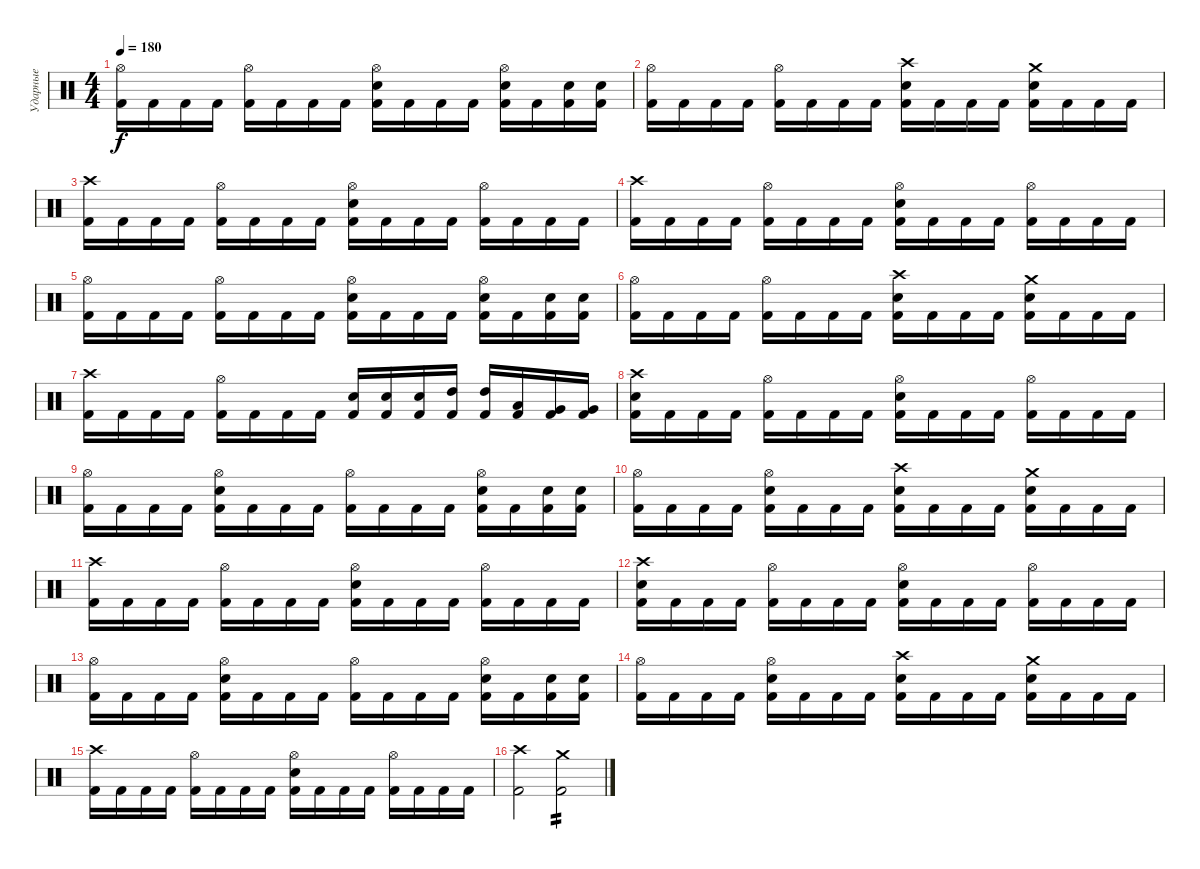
\track ("Ударные" "Ударные") {instrument percussion}
\staff {score}
\articulation defaults
\ts (4 4)
\tempo 180
\clef neutral
\ks c
("Hi-Hat (open)" "Kick (hit) 2").16{dy f} "Kick (hit) 2".16 "Kick (hit) 2".16 "Kick (hit) 2".16 ("Hi-Hat (open)" "Kick (hit) 2").16 "Kick (hit) 2".16 "Kick (hit) 2".16 "Kick (hit) 2".16 ("Hi-Hat (open)" "Snare (hit) 2" "Kick (hit) 2").16 "Kick (hit) 2".16 "Kick (hit) 2".16 "Kick (hit) 2".16 ("Hi-Hat (open)" "Snare (hit) 2" "Kick (hit) 2").16 "Kick (hit) 2".16 ("Snare (hit) 2" "Kick (hit) 2").16 ("Snare (hit) 2" "Kick (hit) 2").16 |
("Hi-Hat (open)" "Kick (hit) 2").16 "Kick (hit) 2".16 "Kick (hit) 2".16 "Kick (hit) 2".16 ("Hi-Hat (open)" "Kick (hit) 2").16 "Kick (hit) 2".16 "Kick (hit) 2".16 "Kick (hit) 2".16 ("Crash high (hit)" "Snare (hit) 2" "Kick (hit) 2").16 "Kick (hit) 2".16 "Kick (hit) 2".16 "Kick (hit) 2".16 ("Crash medium (hit)" "Snare (hit) 2" "Kick (hit) 2").16 "Kick (hit) 2".16 "Kick (hit) 2".16 "Kick (hit) 2".16 |
("Crash high (hit)" "Kick (hit) 2").16 "Kick (hit) 2".16 "Kick (hit) 2".16 "Kick (hit) 2".16 ("Hi-Hat (open)" "Kick (hit) 2").16 "Kick (hit) 2".16 "Kick (hit) 2".16 "Kick (hit) 2".16 ("Hi-Hat (open)" "Snare (hit) 2" "Kick (hit) 2").16 "Kick (hit) 2".16 "Kick (hit) 2".16 "Kick (hit) 2".16 ("Hi-Hat (open)" "Kick (hit) 2").16 "Kick (hit) 2".16 "Kick (hit) 2".16 "Kick (hit) 2".16 |
("Crash high (hit)" "Kick (hit) 2").16 "Kick (hit) 2".16 "Kick (hit) 2".16 "Kick (hit) 2".16 ("Hi-Hat (open)" "Kick (hit) 2").16 "Kick (hit) 2".16 "Kick (hit) 2".16 "Kick (hit) 2".16 ("Hi-Hat (open)" "Snare (hit) 2" "Kick (hit) 2").16 "Kick (hit) 2".16 "Kick (hit) 2".16 "Kick (hit) 2".16 ("Hi-Hat (open)" "Kick (hit) 2").16 "Kick (hit) 2".16 "Kick (hit) 2".16 "Kick (hit) 2".16 |
("Hi-Hat (open)" "Kick (hit) 2").16 "Kick (hit) 2".16 "Kick (hit) 2".16 "Kick (hit) 2".16 ("Hi-Hat (open)" "Kick (hit) 2").16 "Kick (hit) 2".16 "Kick (hit) 2".16 "Kick (hit) 2".16 ("Hi-Hat (open)" "Snare (hit) 2" "Kick (hit) 2").16 "Kick (hit) 2".16 "Kick (hit) 2".16 "Kick (hit) 2".16 ("Hi-Hat (open)" "Snare (hit) 2" "Kick (hit) 2").16 "Kick (hit) 2".16 ("Snare (hit) 2" "Kick (hit) 2").16 ("Snare (hit) 2" "Kick (hit) 2").16 |
("Hi-Hat (open)" "Kick (hit) 2").16 "Kick (hit) 2".16 "Kick (hit) 2".16 "Kick (hit) 2".16 ("Hi-Hat (open)" "Kick (hit) 2").16 "Kick (hit) 2".16 "Kick (hit) 2".16 "Kick (hit) 2".16 ("Crash high (hit)" "Snare (hit) 2" "Kick (hit) 2").16 "Kick (hit) 2".16 "Kick (hit) 2".16 "Kick (hit) 2".16 ("Crash medium (hit)" "Snare (hit) 2" "Kick (hit) 2").16 "Kick (hit) 2".16 "Kick (hit) 2".16 "Kick (hit) 2".16 |
("Crash high (hit)" "Kick (hit) 2").16 "Kick (hit) 2".16 "Kick (hit) 2".16 "Kick (hit) 2".16 ("Hi-Hat (open)" "Kick (hit) 2").16 "Kick (hit) 2".16 "Kick (hit) 2".16 "Kick (hit) 2".16 ("Snare (hit) 2" "Kick (hit) 2").16 ("Snare (hit) 2" "Kick (hit) 2").16 ("Snare (hit) 2" "Kick (hit) 2").16 ("High Tom (hit)" "Kick (hit) 2").16 ("High Tom (hit)" "Kick (hit) 2").16 ("Low Tom (hit)" "Kick (hit) 2").16 ("Very Low Tom (hit)" "Kick (hit) 2").16 ("Very Low Tom (hit)" "Kick (hit) 2").16 |
("Crash high (hit)" "Snare (hit) 2" "Kick (hit) 2").16 "Kick (hit) 2".16 "Kick (hit) 2".16 "Kick (hit) 2".16 ("Hi-Hat (open)" "Kick (hit) 2").16 "Kick (hit) 2".16 "Kick (hit) 2".16 "Kick (hit) 2".16 ("Hi-Hat (open)" "Snare (hit) 2" "Kick (hit) 2").16 "Kick (hit) 2".16 "Kick (hit) 2".16 "Kick (hit) 2".16 ("Hi-Hat (open)" "Kick (hit) 2").16 "Kick (hit) 2".16 "Kick (hit) 2".16 "Kick (hit) 2".16 |
("Hi-Hat (open)" "Kick (hit) 2").16 "Kick (hit) 2".16 "Kick (hit) 2".16 "Kick (hit) 2".16 ("Hi-Hat (open)" "Snare (hit) 2" "Kick (hit) 2").16 "Kick (hit) 2".16 "Kick (hit) 2".16 "Kick (hit) 2".16 ("Hi-Hat (open)" "Kick (hit) 2").16 "Kick (hit) 2".16 "Kick (hit) 2".16 "Kick (hit) 2".16 ("Hi-Hat (open)" "Snare (hit) 2" "Kick (hit) 2").16 "Kick (hit) 2".16 ("Snare (hit) 2" "Kick (hit) 2").16 ("Snare (hit) 2" "Kick (hit) 2").16 |
("Hi-Hat (open)" "Kick (hit) 2").16 "Kick (hit) 2".16 "Kick (hit) 2".16 "Kick (hit) 2".16 ("Hi-Hat (open)" "Snare (hit) 2" "Kick (hit) 2").16 "Kick (hit) 2".16 "Kick (hit) 2".16 "Kick (hit) 2".16 ("Crash high (hit)" "Snare (hit) 2" "Kick (hit) 2").16 "Kick (hit) 2".16 "Kick (hit) 2".16 "Kick (hit) 2".16 ("Crash medium (hit)" "Snare (hit) 2" "Kick (hit) 2").16 "Kick (hit) 2".16 "Kick (hit) 2".16 "Kick (hit) 2".16 |
("Crash high (hit)" "Kick (hit) 2").16 "Kick (hit) 2".16 "Kick (hit) 2".16 "Kick (hit) 2".16 ("Hi-Hat (open)" "Kick (hit) 2").16 "Kick (hit) 2".16 "Kick (hit) 2".16 "Kick (hit) 2".16 ("Hi-Hat (open)" "Snare (hit) 2" "Kick (hit) 2").16 "Kick (hit) 2".16 "Kick (hit) 2".16 "Kick (hit) 2".16 ("Hi-Hat (open)" "Kick (hit) 2").16 "Kick (hit) 2".16 "Kick (hit) 2".16 "Kick (hit) 2".16 |
("Crash high (hit)" "Snare (hit) 2" "Kick (hit) 2").16 "Kick (hit) 2".16 "Kick (hit) 2".16 "Kick (hit) 2".16 ("Hi-Hat (open)" "Kick (hit) 2").16 "Kick (hit) 2".16 "Kick (hit) 2".16 "Kick (hit) 2".16 ("Hi-Hat (open)" "Snare (hit) 2" "Kick (hit) 2").16 "Kick (hit) 2".16 "Kick (hit) 2".16 "Kick (hit) 2".16 ("Hi-Hat (open)" "Kick (hit) 2").16 "Kick (hit) 2".16 "Kick (hit) 2".16 "Kick (hit) 2".16 |
("Hi-Hat (open)" "Kick (hit) 2").16 "Kick (hit) 2".16 "Kick (hit) 2".16 "Kick (hit) 2".16 ("Hi-Hat (open)" "Snare (hit) 2" "Kick (hit) 2").16 "Kick (hit) 2".16 "Kick (hit) 2".16 "Kick (hit) 2".16 ("Hi-Hat (open)" "Kick (hit) 2").16 "Kick (hit) 2".16 "Kick (hit) 2".16 "Kick (hit) 2".16 ("Hi-Hat (open)" "Snare (hit) 2" "Kick (hit) 2").16 "Kick (hit) 2".16 ("Snare (hit) 2" "Kick (hit) 2").16 ("Snare (hit) 2" "Kick (hit) 2").16 |
("Hi-Hat (open)" "Kick (hit) 2").16 "Kick (hit) 2".16 "Kick (hit) 2".16 "Kick (hit) 2".16 ("Hi-Hat (open)" "Snare (hit) 2" "Kick (hit) 2").16 "Kick (hit) 2".16 "Kick (hit) 2".16 "Kick (hit) 2".16 ("Crash high (hit)" "Snare (hit) 2" "Kick (hit) 2").16 "Kick (hit) 2".16 "Kick (hit) 2".16 "Kick (hit) 2".16 ("Crash medium (hit)" "Snare (hit) 2" "Kick (hit) 2").16 "Kick (hit) 2".16 "Kick (hit) 2".16 "Kick (hit) 2".16 |
("Crash high (hit)" "Kick (hit) 2").16 "Kick (hit) 2".16 "Kick (hit) 2".16 "Kick (hit) 2".16 ("Hi-Hat (open)" "Kick (hit) 2").16 "Kick (hit) 2".16 "Kick (hit) 2".16 "Kick (hit) 2".16 ("Hi-Hat (open)" "Snare (hit) 2" "Kick (hit) 2").16 "Kick (hit) 2".16 "Kick (hit) 2".16 "Kick (hit) 2".16 ("Hi-Hat (open)" "Kick (hit) 2").16 "Kick (hit) 2".16 "Kick (hit) 2".16 "Kick (hit) 2".16 |
("Crash high (hit)" "Kick (hit) 2").2 ("Crash medium (hit)" "Kick (hit) 2").2{tp 2}
